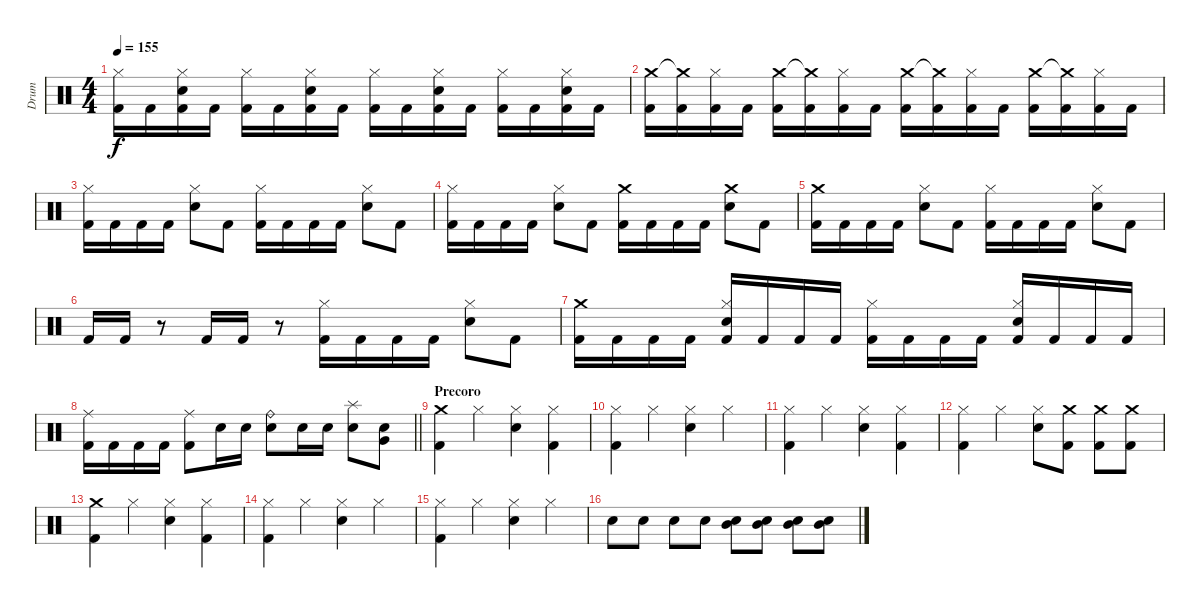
\track ("Drum" "Drum") {instrument percussion}
\staff {score}
\articulation defaults
\ts (4 4)
\tempo 155
\clef neutral
\ks c
("Kick (hit) 2" "Hi-Hat (closed)").16{dy f} "Kick (hit) 2".16 ("Kick (hit) 2" "Hi-Hat (closed)" "Electric Snare (hit)").16 "Kick (hit) 2".16 ("Kick (hit) 2" "Hi-Hat (closed)").16 "Kick (hit) 2".16 ("Kick (hit) 2" "Hi-Hat (closed)" "Electric Snare (hit)").16 "Kick (hit) 2".16 ("Kick (hit) 2" "Hi-Hat (closed)").16 "Kick (hit) 2".16 ("Kick (hit) 2" "Hi-Hat (closed)" "Electric Snare (hit)").16 "Kick (hit) 2".16 ("Kick (hit) 2" "Hi-Hat (closed)").16 "Kick (hit) 2".16 ("Kick (hit) 2" "Hi-Hat (closed)" "Electric Snare (hit)").16 "Kick (hit) 2".16 |
("Kick (hit) 2" "Crash medium (hit)").16 ("Kick (hit) 2" "Crash medium (hit)"{t}).16 ("Kick (hit) 2" "Hi-Hat (closed)").16 "Kick (hit) 2".16 ("Kick (hit) 2" "Crash medium (hit)").16 ("Kick (hit) 2" "Crash medium (hit)"{t}).16 ("Kick (hit) 2" "Hi-Hat (closed)").16 "Kick (hit) 2".16 ("Kick (hit) 2" "Crash medium (hit)").16 ("Kick (hit) 2" "Crash medium (hit)"{t}).16 ("Kick (hit) 2" "Hi-Hat (closed)").16 "Kick (hit) 2".16 ("Kick (hit) 2" "Crash medium (hit)").16 ("Kick (hit) 2" "Crash medium (hit)"{t}).16 ("Kick (hit) 2" "Hi-Hat (closed)").16 "Kick (hit) 2".16 |
("Kick (hit) 2" "Hi-Hat (closed)").16 "Kick (hit) 2".16 "Kick (hit) 2".16 "Kick (hit) 2".16 ("Hi-Hat (closed)" "Electric Snare (hit)").8 "Kick (hit) 2".8 ("Kick (hit) 2" "Hi-Hat (closed)").16 "Kick (hit) 2".16 "Kick (hit) 2".16 "Kick (hit) 2".16 ("Hi-Hat (closed)" "Electric Snare (hit)").8 "Kick (hit) 2".8 |
("Kick (hit) 2" "Hi-Hat (closed)").16 "Kick (hit) 2".16 "Kick (hit) 2".16 "Kick (hit) 2".16 ("Hi-Hat (closed)" "Electric Snare (hit)").8 "Kick (hit) 2".8 ("Kick (hit) 2" "Crash medium (hit)").16 "Kick (hit) 2".16 "Kick (hit) 2".16 "Kick (hit) 2".16 ("Crash medium (hit)" "Electric Snare (hit)").8 "Kick (hit) 2".8 |
("Kick (hit) 2" "Crash medium (hit)").16 "Kick (hit) 2".16 "Kick (hit) 2".16 "Kick (hit) 2".16 ("Hi-Hat (closed)" "Electric Snare (hit)").8 "Kick (hit) 2".8 ("Kick (hit) 2" "Hi-Hat (closed)").16 "Kick (hit) 2".16 "Kick (hit) 2".16 "Kick (hit) 2".16 ("Hi-Hat (closed)" "Electric Snare (hit)").8 "Kick (hit) 2".8 |
"Kick (hit) 2".16 "Kick (hit) 2".16 r.8 "Kick (hit) 2".16 "Kick (hit) 2".16 r.8 ("Kick (hit) 2" "Hi-Hat (closed)").16 "Kick (hit) 2".16 "Kick (hit) 2".16 "Kick (hit) 2".16 ("Hi-Hat (closed)" "Electric Snare (hit)").8 "Kick (hit) 2".8 |
("Kick (hit) 2" "Crash medium (hit)").16 "Kick (hit) 2".16 "Kick (hit) 2".16 "Kick (hit) 2".16 ("Kick (hit) 2" "Hi-Hat (closed)" "Electric Snare (hit)").16 "Kick (hit) 2".16 "Kick (hit) 2".16 "Kick (hit) 2".16 ("Kick (hit) 2" "Hi-Hat (closed)").16 "Kick (hit) 2".16 "Kick (hit) 2".16 "Kick (hit) 2".16 ("Kick (hit) 2" "Hi-Hat (closed)" "Electric Snare (hit)").16 "Kick (hit) 2".16 "Kick (hit) 2".16 "Kick (hit) 2".16 |
\barLineRight lightlight
("Kick (hit) 2" "Ride (middle)").16 "Kick (hit) 2".16 "Kick (hit) 2".16 "Kick (hit) 2".16 ("Kick (hit) 2" "Ride (middle)").8 "Electric Snare (hit)".16 "Electric Snare (hit)".16 ("Ride (bell)" "Electric Snare (hit)").8 "Electric Snare (hit)".16 "Electric Snare (hit)".16 ("Splash (hit)" "Electric Snare (hit)").8 ("Very Low Tom (hit)" "Electric Snare (hit)").8 |
\section ("" "Precoro")
("Kick (hit) 2" "Crash medium (hit)").4 "Hi-Hat (closed)".4 ("Hi-Hat (closed)" "Electric Snare (hit)").4 ("Kick (hit) 2" "Hi-Hat (closed)").4 |
("Kick (hit) 2" "Hi-Hat (closed)").4 "Hi-Hat (closed)".4 ("Hi-Hat (closed)" "Electric Snare (hit)").4 "Hi-Hat (closed)".4 |
("Kick (hit) 2" "Hi-Hat (closed)").4 "Hi-Hat (closed)".4 ("Hi-Hat (closed)" "Electric Snare (hit)").4 ("Kick (hit) 2" "Hi-Hat (closed)").4 |
("Kick (hit) 2" "Hi-Hat (closed)").4 "Hi-Hat (closed)".4 ("Hi-Hat (closed)" "Electric Snare (hit)").8 ("Kick (hit) 2" "Crash medium (hit)").8 ("Kick (hit) 2" "Crash medium (hit)").8 ("Kick (hit) 2" "Crash medium (hit)").8 |
("Kick (hit) 2" "Crash medium (hit)").4 "Hi-Hat (closed)".4 ("Hi-Hat (closed)" "Electric Snare (hit)").4 ("Kick (hit) 2" "Hi-Hat (closed)").4 |
("Kick (hit) 2" "Hi-Hat (closed)").4 "Hi-Hat (closed)".4 ("Hi-Hat (closed)" "Electric Snare (hit)").4 "Hi-Hat (closed)".4 |
("Kick (hit) 2" "Hi-Hat (closed)").4 "Hi-Hat (closed)".4 ("Hi-Hat (closed)" "Electric Snare (hit)").4 "Hi-Hat (closed)".4 |
"Electric Snare (hit)".8 "Electric Snare (hit)".8 "Electric Snare (hit)".8 "Electric Snare (hit)".8 ("Mid Tom (hit)" "Electric Snare (hit)").8 ("Mid Tom (hit)" "Electric Snare (hit)").8 ("Mid Tom (hit)" "Electric Snare (hit)").8 ("Mid Tom (hit)" "Electric Snare (hit)").8
